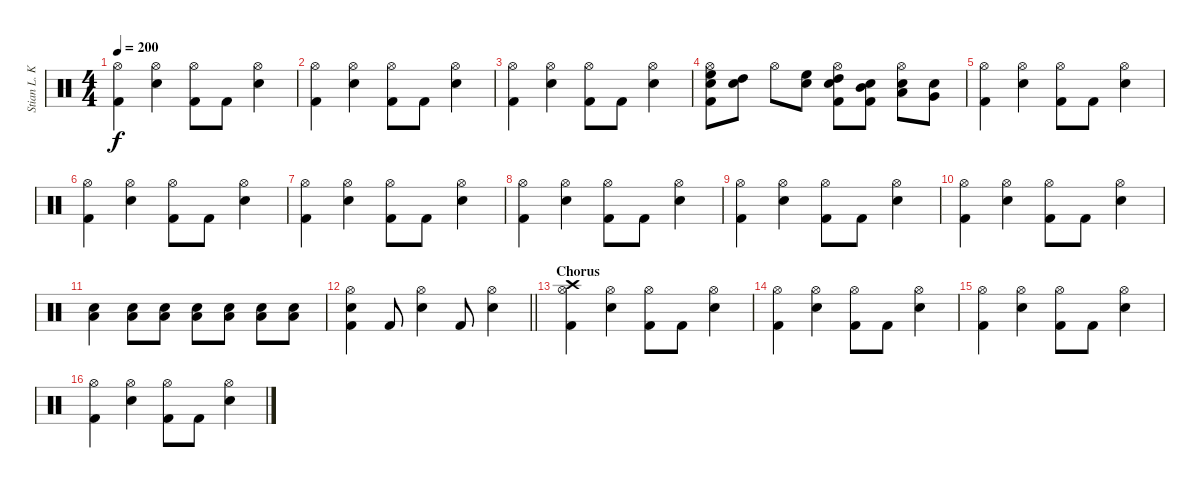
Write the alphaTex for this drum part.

\track ("Stian L. Kristoffersen - Drums" "Stian L. K") {instrument percussion}
\staff {score}
\articulation defaults
\ts (4 4)
\tempo 200
\clef neutral
\ks c
("Hi-Hat (open)" "Kick (hit) 2").4{dy f} ("Hi-Hat (open)" "Electric Snare (hit)").4 ("Hi-Hat (open)" "Kick (hit) 2").8 "Kick (hit) 2".8 ("Hi-Hat (open)" "Electric Snare (hit)").4 |
("Hi-Hat (open)" "Kick (hit) 2").4 ("Hi-Hat (open)" "Electric Snare (hit)").4 ("Hi-Hat (open)" "Kick (hit) 2").8 "Kick (hit) 2".8 ("Hi-Hat (open)" "Electric Snare (hit)").4 |
("Hi-Hat (open)" "Kick (hit) 2").4 ("Hi-Hat (open)" "Electric Snare (hit)").4 ("Hi-Hat (open)" "Kick (hit) 2").8 "Kick (hit) 2".8 ("Hi-Hat (open)" "Electric Snare (hit)").4 |
("Hi-Hat (open)" "Electric Snare (hit)" "High Floor Tom (hit)" "Kick (hit) 2").8 ("Electric Snare (hit)" "High Tom (hit)").8 "Hi-Hat (open)".8 ("Electric Snare (hit)" "High Floor Tom (hit)").8 ("Hi-Hat (open)" "Electric Snare (hit)" "High Tom (hit)" "Kick (hit) 2").8 ("Electric Snare (hit)" "Mid Tom (hit)" "Kick (hit) 2").8 ("Hi-Hat (open)" "Electric Snare (hit)" "Low Tom (hit)").8 ("Electric Snare (hit)" "Very Low Tom (hit)").8 |
("Hi-Hat (open)" "Kick (hit) 2").4 ("Hi-Hat (open)" "Electric Snare (hit)").4 ("Hi-Hat (open)" "Kick (hit) 2").8 "Kick (hit) 2".8 ("Hi-Hat (open)" "Electric Snare (hit)").4 |
("Hi-Hat (open)" "Kick (hit) 2").4 ("Hi-Hat (open)" "Electric Snare (hit)").4 ("Hi-Hat (open)" "Kick (hit) 2").8 "Kick (hit) 2".8 ("Hi-Hat (open)" "Electric Snare (hit)").4 |
("Hi-Hat (open)" "Kick (hit) 2").4 ("Hi-Hat (open)" "Electric Snare (hit)").4 ("Hi-Hat (open)" "Kick (hit) 2").8 "Kick (hit) 2".8 ("Hi-Hat (open)" "Electric Snare (hit)").4 |
("Hi-Hat (open)" "Kick (hit) 2").4 ("Hi-Hat (open)" "Electric Snare (hit)").4 ("Hi-Hat (open)" "Kick (hit) 2").8 "Kick (hit) 2".8 ("Hi-Hat (open)" "Electric Snare (hit)").4 |
("Hi-Hat (open)" "Kick (hit) 2").4 ("Hi-Hat (open)" "Electric Snare (hit)").4 ("Hi-Hat (open)" "Kick (hit) 2").8 "Kick (hit) 2".8 ("Hi-Hat (open)" "Electric Snare (hit)").4 |
("Hi-Hat (open)" "Kick (hit) 2").4 ("Hi-Hat (open)" "Electric Snare (hit)").4 ("Hi-Hat (open)" "Kick (hit) 2").8 "Kick (hit) 2".8 ("Hi-Hat (open)" "Electric Snare (hit)").4 |
("Electric Snare (hit)" "Low Tom (hit)").4 ("Electric Snare (hit)" "Low Tom (hit)").8 ("Electric Snare (hit)" "Low Tom (hit)").8 ("Electric Snare (hit)" "Low Tom (hit)").8 ("Electric Snare (hit)" "Low Tom (hit)").8 ("Electric Snare (hit)" "Low Tom (hit)").8 ("Electric Snare (hit)" "Low Tom (hit)").8 |
\barLineRight lightlight
("Hi-Hat (open)" "Electric Snare (hit)" "Kick (hit) 2").4 "Kick (hit) 2".8 ("Hi-Hat (open)" "Electric Snare (hit)").4 "Kick (hit) 2".8 ("Hi-Hat (open)" "Electric Snare (hit)").4 |
\section ("" "Chorus")
("Crash high (hit)" "Hi-Hat (open)" "Kick (hit) 2").4 ("Hi-Hat (open)" "Electric Snare (hit)").4 ("Hi-Hat (open)" "Kick (hit) 2").8 "Kick (hit) 2".8 ("Hi-Hat (open)" "Electric Snare (hit)").4 |
("Hi-Hat (open)" "Kick (hit) 2").4 ("Hi-Hat (open)" "Electric Snare (hit)").4 ("Hi-Hat (open)" "Kick (hit) 2").8 "Kick (hit) 2".8 ("Hi-Hat (open)" "Electric Snare (hit)").4 |
("Hi-Hat (open)" "Kick (hit) 2").4 ("Hi-Hat (open)" "Electric Snare (hit)").4 ("Hi-Hat (open)" "Kick (hit) 2").8 "Kick (hit) 2".8 ("Hi-Hat (open)" "Electric Snare (hit)").4 |
("Hi-Hat (open)" "Kick (hit) 2").4 ("Hi-Hat (open)" "Electric Snare (hit)").4 ("Hi-Hat (open)" "Kick (hit) 2").8 "Kick (hit) 2".8 ("Hi-Hat (open)" "Electric Snare (hit)").4
